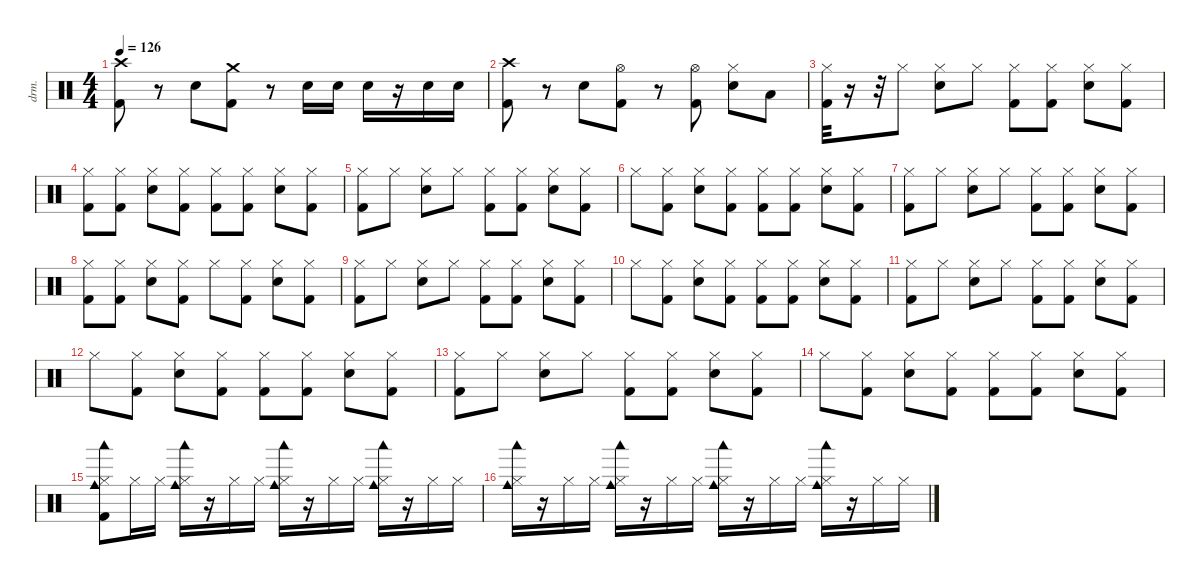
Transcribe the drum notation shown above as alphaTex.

\defaultSystemsLayout 4
\hideDynamics
\bracketExtendMode nobrackets
\otherSystemsTrackNameOrientation horizontal
\track ("Drums" "drm.") {instrument percussion}
\staff {score}
\articulation defaults
\ts (4 4)
\tempo 126
\clef neutral
\ks c
("Kick (hit) 2" "Crash high (hit)").8{dy f beam Down} r.8{beam Down} "Snare (hit) 2".8{beam Down} ("Crash medium (hit)" "Kick (hit) 2").8{beam Down} r.8{beam Down} "Snare (hit) 2".16{beam Down} "Snare (hit) 2".16{beam Down} "Snare (hit) 2".16{beam Down} r.16{beam Down} "Snare (hit) 2".16{beam Down} "Snare (hit) 2".16{beam Down} |
("Kick (hit) 2" "Crash high (hit)").8{beam Down} r.8{beam Down} "Snare (hit) 2".8{beam Down} ("Hi-Hat (open)" "Kick (hit) 2").8{beam Down} r.8{beam Down} ("Hi-Hat (open)" "Kick (hit) 2").8{beam Down} ("Snare (hit) 2" "Hi-Hat (closed)").8{beam Down} "Low Tom (hit)".8{beam Down} |
("Hi-Hat (closed)" "Kick (hit) 2").32{beam Down} r.16{beam Down} r.32{beam Down} "Hi-Hat (closed)".8{beam Down} ("Snare (hit) 2" "Hi-Hat (closed)").8{beam Down} "Hi-Hat (closed)".8{beam Down} ("Hi-Hat (closed)" "Kick (hit) 2").8{beam Down} ("Hi-Hat (closed)" "Kick (hit) 2").8{beam Down} ("Snare (hit) 2" "Hi-Hat (closed)").8{beam Down} ("Kick (hit) 2" "Hi-Hat (closed)").8{beam Down} |
("Kick (hit) 2" "Hi-Hat (closed)").8{beam Down} ("Kick (hit) 2" "Hi-Hat (closed)").8{beam Down} ("Snare (hit) 2" "Hi-Hat (closed)").8{beam Down} ("Kick (hit) 2" "Hi-Hat (closed)").8{beam Down} ("Hi-Hat (closed)" "Kick (hit) 2").8{beam Down} ("Hi-Hat (closed)" "Kick (hit) 2").8{beam Down} ("Snare (hit) 2" "Hi-Hat (closed)").8{beam Down} ("Kick (hit) 2" "Hi-Hat (closed)").8{beam Down} |
("Kick (hit) 2" "Hi-Hat (closed)").8{beam Down} "Hi-Hat (closed)".8{beam Down} ("Snare (hit) 2" "Hi-Hat (closed)").8{beam Down} "Hi-Hat (closed)".8{beam Down} ("Hi-Hat (closed)" "Kick (hit) 2").8{beam Down} ("Hi-Hat (closed)" "Kick (hit) 2").8{beam Down} ("Snare (hit) 2" "Hi-Hat (closed)").8{beam Down} ("Kick (hit) 2" "Hi-Hat (closed)").8{beam Down} |
"Hi-Hat (closed)".8{beam Down} ("Kick (hit) 2" "Hi-Hat (closed)").8{beam Down} ("Snare (hit) 2" "Hi-Hat (closed)").8{beam Down} ("Kick (hit) 2" "Hi-Hat (closed)").8{beam Down} ("Hi-Hat (closed)" "Kick (hit) 2").8{beam Down} ("Hi-Hat (closed)" "Kick (hit) 2").8{beam Down} ("Snare (hit) 2" "Hi-Hat (closed)").8{beam Down} ("Kick (hit) 2" "Hi-Hat (closed)").8{beam Down} |
("Kick (hit) 2" "Hi-Hat (closed)").8{beam Down} "Hi-Hat (closed)".8{beam Down} ("Snare (hit) 2" "Hi-Hat (closed)").8{beam Down} "Hi-Hat (closed)".8{beam Down} ("Hi-Hat (closed)" "Kick (hit) 2").8{beam Down} ("Hi-Hat (closed)" "Kick (hit) 2").8{beam Down} ("Snare (hit) 2" "Hi-Hat (closed)").8{beam Down} ("Kick (hit) 2" "Hi-Hat (closed)").8{beam Down} |
("Kick (hit) 2" "Hi-Hat (closed)").8{beam Down} ("Kick (hit) 2" "Hi-Hat (closed)").8{beam Down} ("Snare (hit) 2" "Hi-Hat (closed)").8{beam Down} ("Kick (hit) 2" "Hi-Hat (closed)").8{beam Down} "Hi-Hat (closed)".8{beam Down} ("Hi-Hat (closed)" "Kick (hit) 2").8{beam Down} ("Snare (hit) 2" "Hi-Hat (closed)").8{beam Down} ("Kick (hit) 2" "Hi-Hat (closed)").8{beam Down} |
("Kick (hit) 2" "Hi-Hat (closed)").8{beam Down} "Hi-Hat (closed)".8{beam Down} ("Snare (hit) 2" "Hi-Hat (closed)").8{beam Down} "Hi-Hat (closed)".8{beam Down} ("Hi-Hat (closed)" "Kick (hit) 2").8{beam Down} ("Hi-Hat (closed)" "Kick (hit) 2").8{beam Down} ("Snare (hit) 2" "Hi-Hat (closed)").8{beam Down} ("Kick (hit) 2" "Hi-Hat (closed)").8{beam Down} |
"Hi-Hat (closed)".8{beam Down} ("Hi-Hat (closed)" "Kick (hit) 2").8{beam Down} ("Snare (hit) 2" "Hi-Hat (closed)").8{beam Down} ("Hi-Hat (closed)" "Kick (hit) 2").8{beam Down} ("Kick (hit) 2" "Hi-Hat (closed)").8{beam Down} ("Hi-Hat (closed)" "Kick (hit) 2").8{beam Down} ("Snare (hit) 2" "Hi-Hat (closed)").8{beam Down} ("Hi-Hat (closed)" "Kick (hit) 2").8{beam Down} |
("Kick (hit) 2" "Hi-Hat (closed)").8{beam Down} "Hi-Hat (closed)".8{beam Down} ("Snare (hit) 2" "Hi-Hat (closed)").8{beam Down} "Hi-Hat (closed)".8{beam Down} ("Hi-Hat (closed)" "Kick (hit) 2").8{beam Down} ("Hi-Hat (closed)" "Kick (hit) 2").8{beam Down} ("Snare (hit) 2" "Hi-Hat (closed)").8{beam Down} ("Kick (hit) 2" "Hi-Hat (closed)").8{beam Down} |
"Hi-Hat (closed)".8{beam Down} ("Hi-Hat (closed)" "Kick (hit) 2").8{beam Down} ("Snare (hit) 2" "Hi-Hat (closed)").8{beam Down} ("Kick (hit) 2" "Hi-Hat (closed)").8{beam Down} ("Hi-Hat (closed)" "Kick (hit) 2").8{beam Down} ("Hi-Hat (closed)" "Kick (hit) 2").8{beam Down} ("Snare (hit) 2" "Hi-Hat (closed)").8{beam Down} ("Kick (hit) 2" "Hi-Hat (closed)").8{beam Down} |
("Kick (hit) 2" "Hi-Hat (closed)").8{beam Down} "Hi-Hat (closed)".8{beam Down} ("Snare (hit) 2" "Hi-Hat (closed)").8{beam Down} "Hi-Hat (closed)".8{beam Down} ("Hi-Hat (closed)" "Kick (hit) 2").8{beam Down} ("Hi-Hat (closed)" "Kick (hit) 2").8{beam Down} ("Snare (hit) 2" "Hi-Hat (closed)").8{beam Down} ("Kick (hit) 2" "Hi-Hat (closed)").8{beam Down} |
"Hi-Hat (closed)".8{beam Down} ("Hi-Hat (closed)" "Kick (hit) 2").8{beam Down} ("Snare (hit) 2" "Hi-Hat (closed)").8{beam Down} ("Kick (hit) 2" "Hi-Hat (closed)").8{beam Down} ("Hi-Hat (closed)" "Kick (hit) 2").8{beam Down} ("Hi-Hat (closed)" "Kick (hit) 2").8{beam Down} ("Snare (hit) 2" "Hi-Hat (closed)").8{beam Down} ("Kick (hit) 2" "Hi-Hat (closed)").8{beam Down} |
("Kick (hit) 2" "Cowbell medium (hit)" "Hi-Hat (closed)" "Woodblock low (hit)").8{beam Down} "Hi-Hat (closed)".16{beam Down} "Hi-Hat (closed)".16{beam Down} ("Cowbell medium (hit)" "Hi-Hat (closed)" "Woodblock low (hit)").16{beam Down} r.16{beam Down} "Hi-Hat (closed)".16{beam Down} "Hi-Hat (closed)".16{beam Down} ("Cowbell medium (hit)" "Hi-Hat (closed)" "Woodblock low (hit)").16{beam Down} r.16{beam Down} "Hi-Hat (closed)".16{beam Down} "Hi-Hat (closed)".16{beam Down} ("Cowbell medium (hit)" "Hi-Hat (closed)" "Woodblock low (hit)").16{beam Down} r.16{beam Down} "Hi-Hat (closed)".16{beam Down} "Hi-Hat (closed)".16{beam Down} |
("Cowbell medium (hit)" "Hi-Hat (closed)" "Woodblock low (hit)").16{beam Down} r.16{beam Down} "Hi-Hat (closed)".16{beam Down} "Hi-Hat (closed)".16{beam Down} ("Cowbell medium (hit)" "Hi-Hat (closed)" "Woodblock low (hit)").16{beam Down} r.16{beam Down} "Hi-Hat (closed)".16{beam Down} "Hi-Hat (closed)".16{beam Down} ("Cowbell medium (hit)" "Hi-Hat (closed)" "Woodblock low (hit)").16{beam Down} r.16{beam Down} "Hi-Hat (closed)".16{beam Down} "Hi-Hat (closed)".16{beam Down} ("Cowbell medium (hit)" "Hi-Hat (closed)" "Woodblock low (hit)").16{beam Down} r.16{beam Down} "Hi-Hat (closed)".16{beam Down} "Hi-Hat (closed)".16{beam Down}
